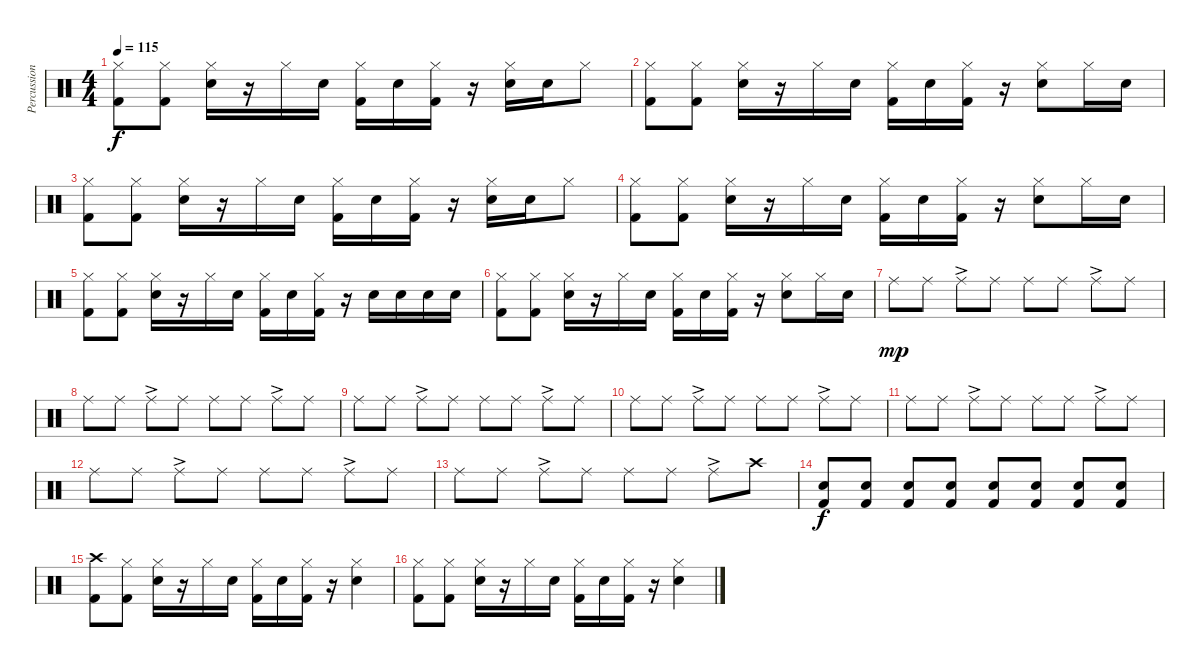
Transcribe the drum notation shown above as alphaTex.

\track ("Percussion" "Percussion") {instrument percussion}
\staff {score}
\articulation defaults
\ts (4 4)
\tempo 115
\clef neutral
\ks c
("Hi-Hat (closed)" "Kick (hit) 2").8{dy f} ("Hi-Hat (closed)" "Kick (hit) 2").8 ("Hi-Hat (closed)" "Snare (hit) 2").16 r.16 "Hi-Hat (closed)".16 "Snare (hit) 2".16 ("Hi-Hat (closed)" "Kick (hit) 2").16 "Snare (hit) 2".16 ("Hi-Hat (closed)" "Kick (hit) 2").16 r.16 ("Hi-Hat (closed)" "Snare (hit) 2").16 "Snare (hit) 2".16 "Hi-Hat (closed)".8 |
("Hi-Hat (closed)" "Kick (hit) 2").8 ("Hi-Hat (closed)" "Kick (hit) 2").8 ("Hi-Hat (closed)" "Snare (hit) 2").16 r.16 "Hi-Hat (closed)".16 "Snare (hit) 2".16 ("Hi-Hat (closed)" "Kick (hit) 2").16 "Snare (hit) 2".16 ("Hi-Hat (closed)" "Kick (hit) 2").16 r.16 ("Hi-Hat (closed)" "Snare (hit) 2").8 "Hi-Hat (closed)".16 "Snare (hit) 2".16 |
("Hi-Hat (closed)" "Kick (hit) 2").8 ("Hi-Hat (closed)" "Kick (hit) 2").8 ("Hi-Hat (closed)" "Snare (hit) 2").16 r.16 "Hi-Hat (closed)".16 "Snare (hit) 2".16 ("Hi-Hat (closed)" "Kick (hit) 2").16 "Snare (hit) 2".16 ("Hi-Hat (closed)" "Kick (hit) 2").16 r.16 ("Hi-Hat (closed)" "Snare (hit) 2").16 "Snare (hit) 2".16 "Hi-Hat (closed)".8 |
("Hi-Hat (closed)" "Kick (hit) 2").8 ("Hi-Hat (closed)" "Kick (hit) 2").8 ("Hi-Hat (closed)" "Snare (hit) 2").16 r.16 "Hi-Hat (closed)".16 "Snare (hit) 2".16 ("Hi-Hat (closed)" "Kick (hit) 2").16 "Snare (hit) 2".16 ("Hi-Hat (closed)" "Kick (hit) 2").16 r.16 ("Hi-Hat (closed)" "Snare (hit) 2").8 "Hi-Hat (closed)".16 "Snare (hit) 2".16 |
("Hi-Hat (closed)" "Kick (hit) 2").8 ("Hi-Hat (closed)" "Kick (hit) 2").8 ("Hi-Hat (closed)" "Snare (hit) 2").16 r.16 "Hi-Hat (closed)".16 "Snare (hit) 2".16 ("Hi-Hat (closed)" "Kick (hit) 2").16 "Snare (hit) 2".16 ("Hi-Hat (closed)" "Kick (hit) 2").16 r.16 "Snare (hit) 2".16 "Snare (hit) 2".16 "Snare (hit) 2".16 "Snare (hit) 2".16 |
("Hi-Hat (closed)" "Kick (hit) 2").8 ("Hi-Hat (closed)" "Kick (hit) 2").8 ("Hi-Hat (closed)" "Snare (hit) 2").16 r.16 "Hi-Hat (closed)".16 "Snare (hit) 2".16 ("Hi-Hat (closed)" "Kick (hit) 2").16 "Snare (hit) 2".16 ("Hi-Hat (closed)" "Kick (hit) 2").16 r.16 ("Hi-Hat (closed)" "Snare (hit) 2").8 "Hi-Hat (closed)".16 "Snare (hit) 2".16 |
"Ride (middle)".8{dy mp} "Ride (middle)".8 "Ride (middle)"{ac}.8 "Ride (middle)".8 "Ride (middle)".8 "Ride (middle)".8 "Ride (middle)"{ac}.8 "Ride (middle)".8 |
"Ride (middle)".8 "Ride (middle)".8 "Ride (middle)"{ac}.8 "Ride (middle)".8 "Ride (middle)".8 "Ride (middle)".8 "Ride (middle)"{ac}.8 "Ride (middle)".8 |
"Ride (middle)".8 "Ride (middle)".8 "Ride (middle)"{ac}.8 "Ride (middle)".8 "Ride (middle)".8 "Ride (middle)".8 "Ride (middle)"{ac}.8 "Ride (middle)".8 |
"Ride (middle)".8 "Ride (middle)".8 "Ride (middle)"{ac}.8 "Ride (middle)".8 "Ride (middle)".8 "Ride (middle)".8 "Ride (middle)"{ac}.8 "Ride (middle)".8 |
"Ride (middle)".8 "Ride (middle)".8 "Ride (middle)"{ac}.8 "Ride (middle)".8 "Ride (middle)".8 "Ride (middle)".8 "Ride (middle)"{ac}.8 "Ride (middle)".8 |
"Ride (middle)".8 "Ride (middle)".8 "Ride (middle)"{ac}.8 "Ride (middle)".8 "Ride (middle)".8 "Ride (middle)".8 "Ride (middle)"{ac}.8 "Ride (middle)".8 |
"Ride (middle)".8 "Ride (middle)".8 "Ride (middle)"{ac}.8 "Ride (middle)".8 "Ride (middle)".8 "Ride (middle)".8 "Ride (middle)"{ac}.8 "Crash high (hit)".8 |
("Snare (hit) 2" "Kick (hit) 2").8{dy f} ("Snare (hit) 2" "Kick (hit) 2").8 ("Snare (hit) 2" "Kick (hit) 2").8 ("Snare (hit) 2" "Kick (hit) 2").8 ("Snare (hit) 2" "Kick (hit) 2").8 ("Snare (hit) 2" "Kick (hit) 2").8 ("Snare (hit) 2" "Kick (hit) 2").8 ("Snare (hit) 2" "Kick (hit) 2").8 |
("Crash high (hit)" "Kick (hit) 2").8 ("Hi-Hat (closed)" "Kick (hit) 2").8 ("Hi-Hat (closed)" "Snare (hit) 2").16 r.16 "Hi-Hat (closed)".16 "Snare (hit) 2".16 ("Hi-Hat (closed)" "Kick (hit) 2").16 "Snare (hit) 2".16 ("Hi-Hat (closed)" "Kick (hit) 2").16 r.16 ("Hi-Hat (closed)" "Snare (hit) 2").4 |
("Hi-Hat (closed)" "Kick (hit) 2").8 ("Hi-Hat (closed)" "Kick (hit) 2").8 ("Hi-Hat (closed)" "Snare (hit) 2").16 r.16 "Hi-Hat (closed)".16 "Snare (hit) 2".16 ("Hi-Hat (closed)" "Kick (hit) 2").16 "Snare (hit) 2".16 ("Hi-Hat (closed)" "Kick (hit) 2").16 r.16 ("Hi-Hat (closed)" "Snare (hit) 2").4
